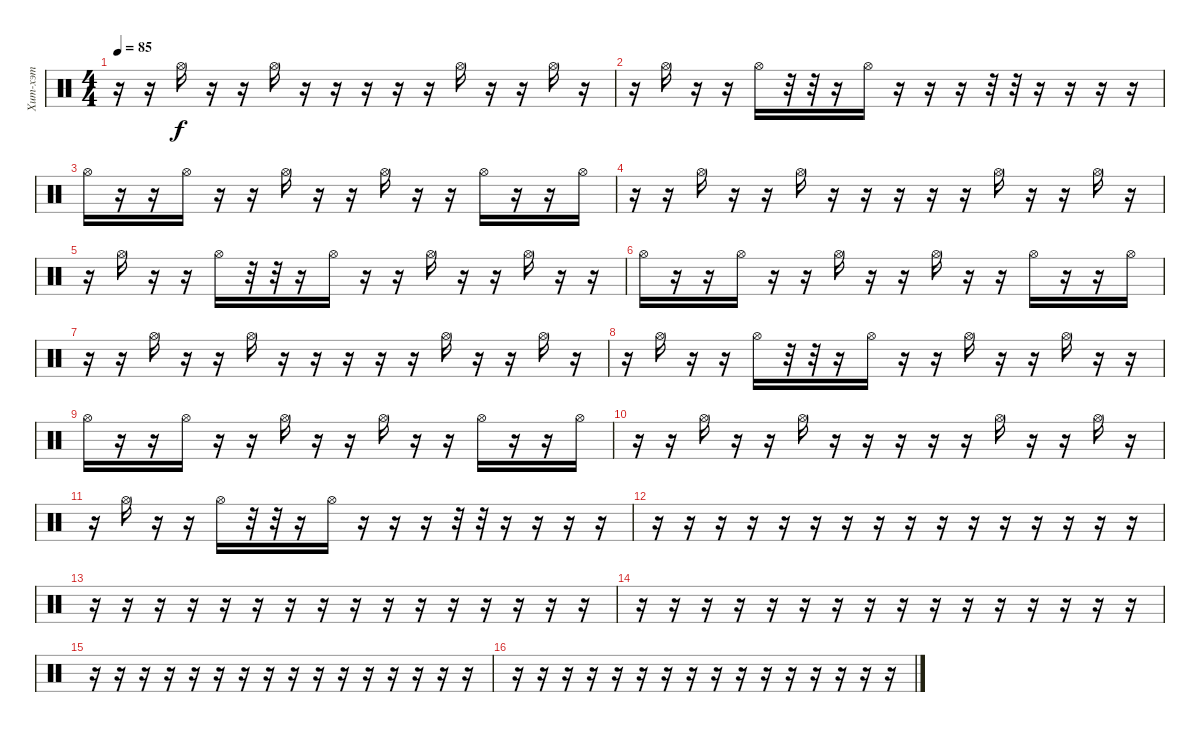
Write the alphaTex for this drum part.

\track ("Хит-хэт" "Хит-хэт") {instrument percussion}
\staff {score}
\articulation defaults
\ts (4 4)
\tempo 85
\clef neutral
\ks c
r.16{dy f} r.16 "Hi-Hat (open)".16 r.16 r.16 "Hi-Hat (open)".16 r.16 r.16 r.16 r.16 r.16 "Hi-Hat (open)".16 r.16 r.16 "Hi-Hat (open)".16 r.16 |
r.16 "Hi-Hat (open)".16 r.16 r.16 "Hi-Hat (open)".16 r.32 r.32 r.16 "Hi-Hat (open)".16 r.16 r.16 r.16 r.32 r.32 r.16 r.16 r.16 r.16 |
"Hi-Hat (open)".16 r.16 r.16 "Hi-Hat (open)".16 r.16 r.16 "Hi-Hat (open)".16 r.16 r.16 "Hi-Hat (open)".16 r.16 r.16 "Hi-Hat (open)".16 r.16 r.16 "Hi-Hat (open)".16 |
r.16 r.16 "Hi-Hat (open)".16 r.16 r.16 "Hi-Hat (open)".16 r.16 r.16 r.16 r.16 r.16 "Hi-Hat (open)".16 r.16 r.16 "Hi-Hat (open)".16 r.16 |
r.16 "Hi-Hat (open)".16 r.16 r.16 "Hi-Hat (open)".16 r.32 r.32 r.16 "Hi-Hat (open)".16 r.16 r.16 "Hi-Hat (open)".16 r.16 r.16 "Hi-Hat (open)".16 r.16 r.16 |
"Hi-Hat (open)".16 r.16 r.16 "Hi-Hat (open)".16 r.16 r.16 "Hi-Hat (open)".16 r.16 r.16 "Hi-Hat (open)".16 r.16 r.16 "Hi-Hat (open)".16 r.16 r.16 "Hi-Hat (open)".16 |
r.16 r.16 "Hi-Hat (open)".16 r.16 r.16 "Hi-Hat (open)".16 r.16 r.16 r.16 r.16 r.16 "Hi-Hat (open)".16 r.16 r.16 "Hi-Hat (open)".16 r.16 |
r.16 "Hi-Hat (open)".16 r.16 r.16 "Hi-Hat (open)".16 r.32 r.32 r.16 "Hi-Hat (open)".16 r.16 r.16 "Hi-Hat (open)".16 r.16 r.16 "Hi-Hat (open)".16 r.16 r.16 |
"Hi-Hat (open)".16 r.16 r.16 "Hi-Hat (open)".16 r.16 r.16 "Hi-Hat (open)".16 r.16 r.16 "Hi-Hat (open)".16 r.16 r.16 "Hi-Hat (open)".16 r.16 r.16 "Hi-Hat (open)".16 |
r.16 r.16 "Hi-Hat (open)".16 r.16 r.16 "Hi-Hat (open)".16 r.16 r.16 r.16 r.16 r.16 "Hi-Hat (open)".16 r.16 r.16 "Hi-Hat (open)".16 r.16 |
r.16 "Hi-Hat (open)".16 r.16 r.16 "Hi-Hat (open)".16 r.32 r.32 r.16 "Hi-Hat (open)".16 r.16 r.16 r.16 r.32 r.32 r.16 r.16 r.16 r.16 |
r.16 r.16 r.16 r.16 r.16 r.16 r.16 r.16 r.16 r.16 r.16 r.16 r.16 r.16 r.16 r.16 |
r.16 r.16 r.16 r.16 r.16 r.16 r.16 r.16 r.16 r.16 r.16 r.16 r.16 r.16 r.16 r.16 |
r.16 r.16 r.16 r.16 r.16 r.16 r.16 r.16 r.16 r.16 r.16 r.16 r.16 r.16 r.16 r.16 |
r.16 r.16 r.16 r.16 r.16 r.16 r.16 r.16 r.16 r.16 r.16 r.16 r.16 r.16 r.16 r.16 |
r.16 r.16 r.16 r.16 r.16 r.16 r.16 r.16 r.16 r.16 r.16 r.16 r.16 r.16 r.16 r.16
